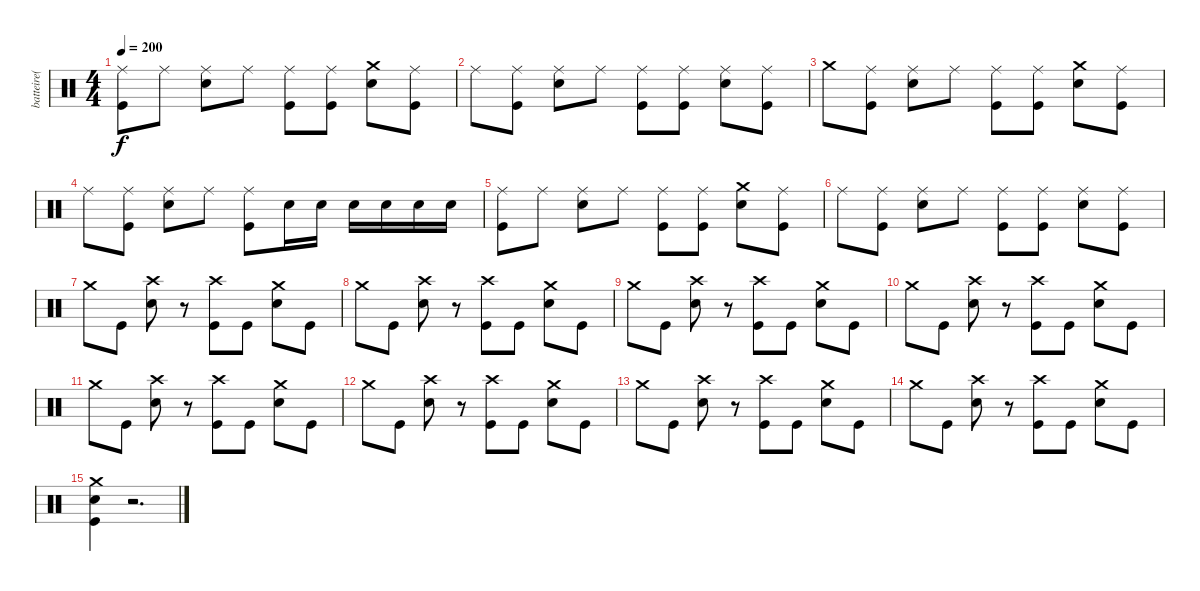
\track ("batteire( Danny Alaro )" "batteire( ") {instrument percussion}
\staff {score}
\articulation defaults
\ts (4 4)
\tempo 200
\clef neutral
\ks c
("Ride (middle)" "Kick (hit)").8{dy f} "Ride (middle)".8 ("Ride (middle)" "Snare (hit) 2").8 "Ride (middle)".8 ("Ride (middle)" "Kick (hit)").8 ("Ride (middle)" "Kick (hit)").8 ("Crash medium (hit)" "Snare (hit) 2").8 ("Ride (middle)" "Kick (hit)").8 |
"Ride (middle)".8 ("Ride (middle)" "Kick (hit)").8 ("Ride (middle)" "Snare (hit) 2").8 "Ride (middle)".8 ("Ride (middle)" "Kick (hit)").8 ("Ride (middle)" "Kick (hit)").8 ("Ride (middle)" "Snare (hit) 2").8 ("Ride (middle)" "Kick (hit)").8 |
"Crash medium (hit)".8 ("Ride (middle)" "Kick (hit)").8 ("Ride (middle)" "Snare (hit) 2").8 "Ride (middle)".8 ("Ride (middle)" "Kick (hit)").8 ("Ride (middle)" "Kick (hit)").8 ("Crash medium (hit)" "Snare (hit) 2").8 ("Ride (middle)" "Kick (hit)").8 |
"Ride (middle)".8 ("Ride (middle)" "Kick (hit)").8 ("Ride (middle)" "Snare (hit) 2").8 "Ride (middle)".8 ("Ride (middle)" "Kick (hit)").8 "Snare (hit) 2".16 "Snare (hit) 2".16 "Snare (hit) 2".16 "Snare (hit) 2".16 "Snare (hit) 2".16 "Snare (hit) 2".16 |
("Ride (middle)" "Kick (hit)").8 "Ride (middle)".8 ("Ride (middle)" "Snare (hit) 2").8 "Ride (middle)".8 ("Ride (middle)" "Kick (hit)").8 ("Ride (middle)" "Kick (hit)").8 ("Crash medium (hit)" "Snare (hit) 2").8 ("Ride (middle)" "Kick (hit)").8 |
"Ride (middle)".8 ("Ride (middle)" "Kick (hit)").8 ("Ride (middle)" "Snare (hit) 2").8 "Ride (middle)".8 ("Ride (middle)" "Kick (hit)").8 ("Ride (middle)" "Kick (hit)").8 ("Ride (middle)" "Snare (hit) 2").8 ("Ride (middle)" "Kick (hit)").8 |
"Crash medium (hit)".8 "Kick (hit)".8 ("Crash high (hit)" "Snare (hit) 2").8 r.8 ("Crash high (hit)" "Kick (hit)").8 "Kick (hit)".8 ("Crash medium (hit)" "Snare (hit) 2").8 "Kick (hit)".8 |
"Crash medium (hit)".8 "Kick (hit)".8 ("Crash high (hit)" "Snare (hit) 2").8 r.8 ("Crash high (hit)" "Kick (hit)").8 "Kick (hit)".8 ("Crash medium (hit)" "Snare (hit) 2").8 "Kick (hit)".8 |
"Crash medium (hit)".8 "Kick (hit)".8 ("Crash high (hit)" "Snare (hit) 2").8 r.8 ("Crash high (hit)" "Kick (hit)").8 "Kick (hit)".8 ("Crash medium (hit)" "Snare (hit) 2").8 "Kick (hit)".8 |
"Crash medium (hit)".8 "Kick (hit)".8 ("Crash high (hit)" "Snare (hit) 2").8 r.8 ("Crash high (hit)" "Kick (hit)").8 "Kick (hit)".8 ("Crash medium (hit)" "Snare (hit) 2").8 "Kick (hit)".8 |
"Crash medium (hit)".8 "Kick (hit)".8 ("Crash high (hit)" "Snare (hit) 2").8 r.8 ("Crash high (hit)" "Kick (hit)").8 "Kick (hit)".8 ("Crash medium (hit)" "Snare (hit) 2").8 "Kick (hit)".8 |
"Crash medium (hit)".8 "Kick (hit)".8 ("Crash high (hit)" "Snare (hit) 2").8 r.8 ("Crash high (hit)" "Kick (hit)").8 "Kick (hit)".8 ("Crash medium (hit)" "Snare (hit) 2").8 "Kick (hit)".8 |
"Crash medium (hit)".8 "Kick (hit)".8 ("Crash high (hit)" "Snare (hit) 2").8 r.8 ("Crash high (hit)" "Kick (hit)").8 "Kick (hit)".8 ("Crash medium (hit)" "Snare (hit) 2").8 "Kick (hit)".8 |
"Crash medium (hit)".8 "Kick (hit)".8 ("Crash high (hit)" "Snare (hit) 2").8 r.8 ("Crash high (hit)" "Kick (hit)").8 "Kick (hit)".8 ("Crash medium (hit)" "Snare (hit) 2").8 "Kick (hit)".8 |
("Crash medium (hit)" "Snare (hit) 2" "Kick (hit)").4 r.2{d}
